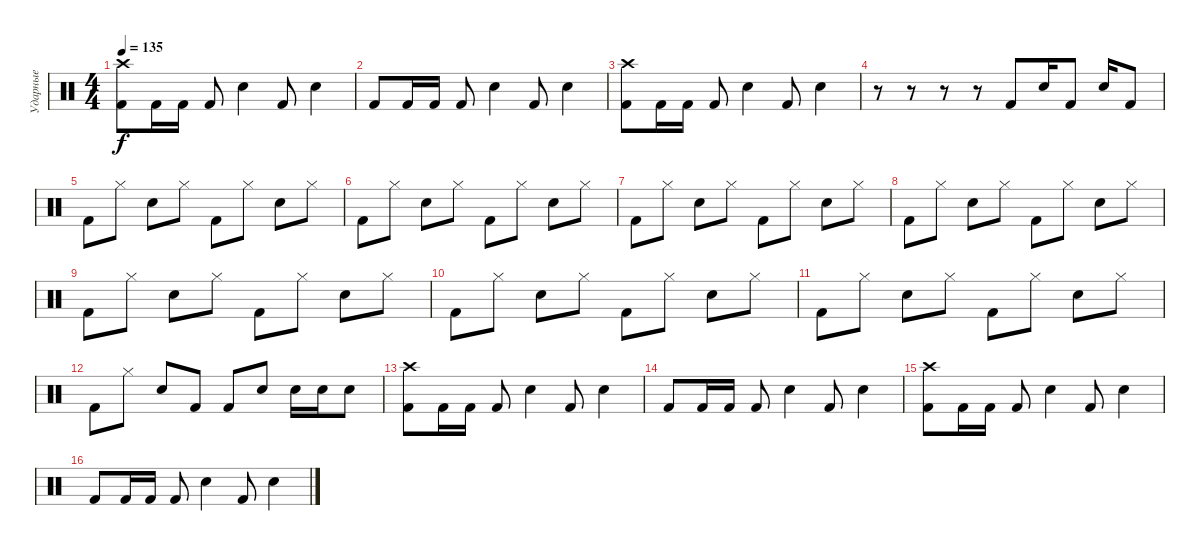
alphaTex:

\track ("Ударные" "Ударные") {instrument percussion}
\staff {score}
\articulation defaults
\ts (4 4)
\tempo 135
\clef neutral
\ks c
("Crash high (hit)" "Kick (hit) 2").8{dy f} "Kick (hit) 2".16 "Kick (hit) 2".16 "Kick (hit) 2".8 "Electric Snare (hit)".4 "Kick (hit) 2".8 "Electric Snare (hit)".4 |
"Kick (hit) 2".8 "Kick (hit) 2".16 "Kick (hit) 2".16 "Kick (hit) 2".8 "Electric Snare (hit)".4 "Kick (hit) 2".8 "Electric Snare (hit)".4 |
("Crash high (hit)" "Kick (hit) 2").8 "Kick (hit) 2".16 "Kick (hit) 2".16 "Kick (hit) 2".8 "Electric Snare (hit)".4 "Kick (hit) 2".8 "Electric Snare (hit)".4 |
r.8 r.8 r.8 r.8 "Kick (hit) 2".8 "Snare (hit) 2".16 "Kick (hit) 2".8 "Electric Snare (hit)".16 "Kick (hit) 2".8 |
"Kick (hit) 2".8 "Hi-Hat (closed)".8 "Snare (hit) 2".8 "Hi-Hat (closed)".8 "Kick (hit) 2".8 "Hi-Hat (closed)".8 "Snare (hit) 2".8 "Hi-Hat (closed)".8 |
"Kick (hit) 2".8 "Hi-Hat (closed)".8 "Snare (hit) 2".8 "Hi-Hat (closed)".8 "Kick (hit) 2".8 "Hi-Hat (closed)".8 "Snare (hit) 2".8 "Hi-Hat (closed)".8 |
"Kick (hit) 2".8 "Hi-Hat (closed)".8 "Snare (hit) 2".8 "Hi-Hat (closed)".8 "Kick (hit) 2".8 "Hi-Hat (closed)".8 "Snare (hit) 2".8 "Hi-Hat (closed)".8 |
"Kick (hit) 2".8 "Hi-Hat (closed)".8 "Snare (hit) 2".8 "Hi-Hat (closed)".8 "Kick (hit) 2".8 "Hi-Hat (closed)".8 "Snare (hit) 2".8 "Hi-Hat (closed)".8 |
"Kick (hit) 2".8 "Hi-Hat (closed)".8 "Snare (hit) 2".8 "Hi-Hat (closed)".8 "Kick (hit) 2".8 "Hi-Hat (closed)".8 "Snare (hit) 2".8 "Hi-Hat (closed)".8 |
"Kick (hit) 2".8 "Hi-Hat (closed)".8 "Snare (hit) 2".8 "Hi-Hat (closed)".8 "Kick (hit) 2".8 "Hi-Hat (closed)".8 "Snare (hit) 2".8 "Hi-Hat (closed)".8 |
"Kick (hit) 2".8 "Hi-Hat (closed)".8 "Snare (hit) 2".8 "Hi-Hat (closed)".8 "Kick (hit) 2".8 "Hi-Hat (closed)".8 "Snare (hit) 2".8 "Hi-Hat (closed)".8 |
"Kick (hit) 2".8 "Hi-Hat (closed)".8 "Snare (hit) 2".8 "Kick (hit) 2".8 "Kick (hit) 2".8 "Snare (hit) 2".8 "Electric Snare (hit)".16 "Electric Snare (hit)".16 "Electric Snare (hit)".8 |
("Crash high (hit)" "Kick (hit) 2").8 "Kick (hit) 2".16 "Kick (hit) 2".16 "Kick (hit) 2".8 "Electric Snare (hit)".4 "Kick (hit) 2".8 "Electric Snare (hit)".4 |
"Kick (hit) 2".8 "Kick (hit) 2".16 "Kick (hit) 2".16 "Kick (hit) 2".8 "Electric Snare (hit)".4 "Kick (hit) 2".8 "Electric Snare (hit)".4 |
("Crash high (hit)" "Kick (hit) 2").8 "Kick (hit) 2".16 "Kick (hit) 2".16 "Kick (hit) 2".8 "Electric Snare (hit)".4 "Kick (hit) 2".8 "Electric Snare (hit)".4 |
"Kick (hit) 2".8 "Kick (hit) 2".16 "Kick (hit) 2".16 "Kick (hit) 2".8 "Electric Snare (hit)".4 "Kick (hit) 2".8 "Electric Snare (hit)".4
